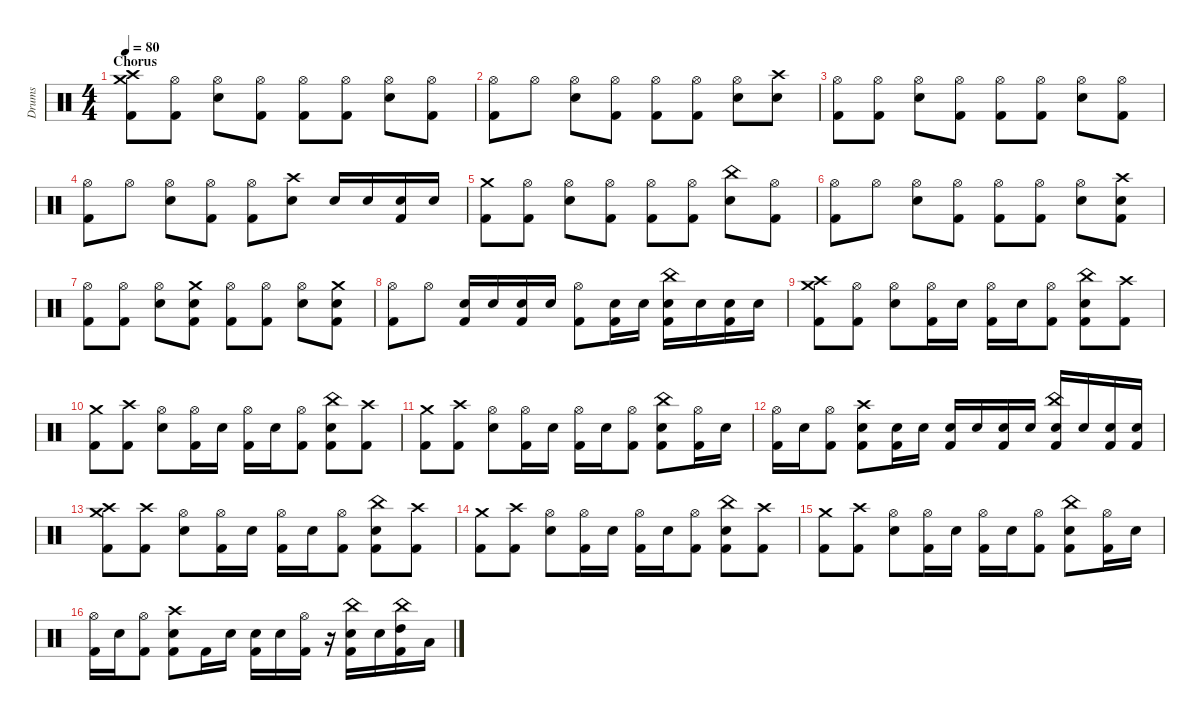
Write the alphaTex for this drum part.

\hideDynamics
\bracketExtendMode nobrackets
\otherSystemsTrackNameOrientation horizontal
\track ("Drumkit" "Drums") {instrument percussion}
\staff {score}
\articulation defaults
\ts (4 4)
\section ("" "Chorus")
\tempo 80
\clef neutral
\ks c
("Kick (hit) 2" "Crash high (hit)" "Crash medium (hit)").8{dy f beam Down} ("Kick (hit) 2" "Hi-Hat (open)").8{beam Down} ("Snare (hit) 2" "Hi-Hat (open)").8{beam Down} ("Kick (hit) 2" "Hi-Hat (open)").8{beam Down} ("Kick (hit) 2" "Hi-Hat (open)").8{beam Down} ("Kick (hit) 2" "Hi-Hat (open)").8{beam Down} ("Snare (hit) 2" "Hi-Hat (open)").8{beam Down} ("Kick (hit) 2" "Hi-Hat (open)").8{beam Down} |
("Kick (hit) 2" "Hi-Hat (open)").8{beam Down} "Hi-Hat (open)".8{beam Down} ("Snare (hit) 2" "Hi-Hat (open)").8{beam Down} ("Kick (hit) 2" "Hi-Hat (open)").8{beam Down} ("Kick (hit) 2" "Hi-Hat (open)").8{beam Down} ("Kick (hit) 2" "Hi-Hat (open)").8{beam Down} ("Snare (hit) 2" "Hi-Hat (open)").8{beam Down} ("Snare (hit) 2" "Crash high (hit)").8{beam Down} |
("Kick (hit) 2" "Hi-Hat (open)").8{beam Down} ("Kick (hit) 2" "Hi-Hat (open)").8{beam Down} ("Snare (hit) 2" "Hi-Hat (open)").8{beam Down} ("Kick (hit) 2" "Hi-Hat (open)").8{beam Down} ("Kick (hit) 2" "Hi-Hat (open)").8{beam Down} ("Kick (hit) 2" "Hi-Hat (open)").8{beam Down} ("Snare (hit) 2" "Hi-Hat (open)").8{beam Down} ("Kick (hit) 2" "Hi-Hat (open)").8{beam Down} |
("Kick (hit) 2" "Hi-Hat (open)").8{beam Down} "Hi-Hat (open)".8{beam Down} ("Snare (hit) 2" "Hi-Hat (open)").8{beam Down} ("Kick (hit) 2" "Hi-Hat (open)").8{beam Down} ("Kick (hit) 2" "Hi-Hat (open)").8{beam Down} ("Snare (hit) 2" "Crash high (hit)").8{beam Down} "Snare (hit) 2".16{beam Up} "Snare (hit) 2".16{beam Up} ("Kick (hit) 2" "Snare (hit) 2").16{beam Up} "Snare (hit) 2".16{beam Up} |
("Kick (hit) 2" "Crash medium (hit)").8{beam Down} ("Kick (hit) 2" "Hi-Hat (open)").8{beam Down} ("Snare (hit) 2" "Hi-Hat (open)").8{beam Down} ("Kick (hit) 2" "Hi-Hat (open)").8{beam Down} ("Kick (hit) 2" "Hi-Hat (open)").8{beam Down} ("Kick (hit) 2" "Hi-Hat (open)").8{beam Down} ("Snare (hit) 2" "China (hit)").8{beam Down} ("Kick (hit) 2" "Hi-Hat (open)").8{beam Down} |
("Kick (hit) 2" "Hi-Hat (open)").8{beam Down} "Hi-Hat (open)".8{beam Down} ("Snare (hit) 2" "Hi-Hat (open)").8{beam Down} ("Kick (hit) 2" "Hi-Hat (open)").8{beam Down} ("Kick (hit) 2" "Hi-Hat (open)").8{beam Down} ("Kick (hit) 2" "Hi-Hat (open)").8{beam Down} ("Snare (hit) 2" "Hi-Hat (open)").8{beam Down} ("Snare (hit) 2" "Crash high (hit)" "Kick (hit) 2").8{beam Down} |
("Kick (hit) 2" "Hi-Hat (open)").8{beam Down} ("Kick (hit) 2" "Hi-Hat (open)").8{beam Down} ("Snare (hit) 2" "Hi-Hat (open)").8{beam Down} ("Snare (hit) 2" "Crash medium (hit)" "Kick (hit) 2").8{beam Down} ("Kick (hit) 2" "Hi-Hat (open)").8{beam Down} ("Kick (hit) 2" "Hi-Hat (open)").8{beam Down} ("Snare (hit) 2" "Hi-Hat (open)").8{beam Down} ("Kick (hit) 2" "Crash medium (hit)" "Snare (hit) 2").8{beam Down} |
("Kick (hit) 2" "Hi-Hat (open)").8{beam Down} "Hi-Hat (open)".8{beam Down} ("Snare (hit) 2" "Kick (hit) 2").16{beam Up} "Snare (hit) 2".16{beam Up} ("Snare (hit) 2" "Kick (hit) 2").16{beam Up} "Snare (hit) 2".16{beam Up} ("Kick (hit) 2" "Hi-Hat (open)").8{beam Down} ("Snare (hit) 2" "Kick (hit) 2").16{beam Down} "Snare (hit) 2".16{beam Down} ("China (hit)" "Snare (hit) 2" "Kick (hit) 2").16{beam Down} "Snare (hit) 2".16{beam Down} ("Snare (hit) 2" "Kick (hit) 2").16{beam Down} "Snare (hit) 2".16{beam Down} |
("Kick (hit) 2" "Crash high (hit)" "Crash medium (hit)").8{beam Down} ("Kick (hit) 2" "Hi-Hat (open)").8{beam Down} ("Snare (hit) 2" "Hi-Hat (open)").8{beam Down} ("Kick (hit) 2" "Hi-Hat (open)").16{beam Down} "Snare (hit) 2".16{beam Down} ("Kick (hit) 2" "Hi-Hat (open)").16{beam Down} "Snare (hit) 2".16{beam Down} ("Kick (hit) 2" "Hi-Hat (open)").8{beam Down} ("Snare (hit) 2" "China (hit)" "Kick (hit) 2").8{beam Down} ("Kick (hit) 2" "Crash high (hit)").8{beam Down} |
("Kick (hit) 2" "Crash medium (hit)").8{beam Down} ("Kick (hit) 2" "Crash high (hit)").8{beam Down} ("Snare (hit) 2" "Hi-Hat (open)").8{beam Down} ("Kick (hit) 2" "Hi-Hat (open)").16{beam Down} "Snare (hit) 2".16{beam Down} ("Kick (hit) 2" "Hi-Hat (open)").16{beam Down} "Snare (hit) 2".16{beam Down} ("Kick (hit) 2" "Hi-Hat (open)").8{beam Down} ("Snare (hit) 2" "China (hit)" "Kick (hit) 2").8{beam Down} ("Kick (hit) 2" "Crash high (hit)").8{beam Down} |
("Kick (hit) 2" "Crash medium (hit)").8{beam Down} ("Kick (hit) 2" "Crash high (hit)").8{beam Down} ("Snare (hit) 2" "Hi-Hat (open)").8{beam Down} ("Kick (hit) 2" "Hi-Hat (open)").16{beam Down} "Snare (hit) 2".16{beam Down} ("Kick (hit) 2" "Hi-Hat (open)").16{beam Down} "Snare (hit) 2".16{beam Down} ("Kick (hit) 2" "Hi-Hat (open)").8{beam Down} ("Snare (hit) 2" "China (hit)" "Kick (hit) 2").8{beam Down} ("Kick (hit) 2" "Hi-Hat (open)").16{beam Down} "Snare (hit) 2".16{beam Down} |
("Kick (hit) 2" "Hi-Hat (open)").16{beam Down} "Snare (hit) 2".16{beam Down} ("Kick (hit) 2" "Hi-Hat (open)").8{beam Down} ("Snare (hit) 2" "Crash high (hit)" "Kick (hit) 2").8{beam Down} ("Kick (hit) 2" "Snare (hit) 2").16{beam Down} "Snare (hit) 2".16{beam Down} ("Snare (hit) 2" "Kick (hit) 2").16{beam Up} "Snare (hit) 2".16{beam Up} ("Snare (hit) 2" "Kick (hit) 2").16{beam Up} "Snare (hit) 2".16{beam Up} ("Snare (hit) 2" "Kick (hit) 2" "China (hit)").16{beam Up} "Snare (hit) 2".16{beam Up} ("Snare (hit) 2" "Kick (hit) 2").16{beam Up} ("Kick (hit) 2" "Snare (hit) 2").16{beam Up} |
("Kick (hit) 2" "Crash high (hit)" "Crash medium (hit)").8{beam Down} ("Kick (hit) 2" "Crash high (hit)").8{beam Down} ("Snare (hit) 2" "Hi-Hat (open)").8{beam Down} ("Kick (hit) 2" "Hi-Hat (open)").16{beam Down} "Snare (hit) 2".16{beam Down} ("Kick (hit) 2" "Hi-Hat (open)").16{beam Down} "Snare (hit) 2".16{beam Down} ("Kick (hit) 2" "Hi-Hat (open)").8{beam Down} ("Snare (hit) 2" "China (hit)" "Kick (hit) 2").8{beam Down} ("Kick (hit) 2" "Crash high (hit)").8{beam Down} |
("Kick (hit) 2" "Crash medium (hit)").8{beam Down} ("Kick (hit) 2" "Crash high (hit)").8{beam Down} ("Snare (hit) 2" "Hi-Hat (open)").8{beam Down} ("Kick (hit) 2" "Hi-Hat (open)").16{beam Down} "Snare (hit) 2".16{beam Down} ("Kick (hit) 2" "Hi-Hat (open)").16{beam Down} "Snare (hit) 2".16{beam Down} ("Kick (hit) 2" "Hi-Hat (open)").8{beam Down} ("Snare (hit) 2" "China (hit)" "Kick (hit) 2").8{beam Down} ("Kick (hit) 2" "Crash high (hit)").8{beam Down} |
("Kick (hit) 2" "Crash medium (hit)").8{beam Down} ("Kick (hit) 2" "Crash high (hit)").8{beam Down} ("Snare (hit) 2" "Hi-Hat (open)").8{beam Down} ("Kick (hit) 2" "Hi-Hat (open)").16{beam Down} "Snare (hit) 2".16{beam Down} ("Kick (hit) 2" "Hi-Hat (open)").16{beam Down} "Snare (hit) 2".16{beam Down} ("Kick (hit) 2" "Hi-Hat (open)").8{beam Down} ("Snare (hit) 2" "China (hit)" "Kick (hit) 2").8{beam Down} ("Kick (hit) 2" "Hi-Hat (open)").16{beam Down} "Snare (hit) 2".16{beam Down} |
("Kick (hit) 2" "Hi-Hat (open)").16{beam Down} "Snare (hit) 2".16{beam Down} ("Kick (hit) 2" "Hi-Hat (open)").8{beam Down} ("Snare (hit) 2" "Crash high (hit)" "Kick (hit) 2").8{beam Down} "Kick (hit) 2".16{beam Down} "Snare (hit) 2".16{beam Down} ("Snare (hit) 2" "Kick (hit) 2").16{beam Down} "Snare (hit) 2".16{beam Down} ("Hi-Hat (open)" "Kick (hit) 2").16{beam Down} r.16{beam Down} ("Snare (hit) 2" "Kick (hit) 2" "China (hit)").16{beam Down} "Snare (hit) 2".16{beam Down} ("High Tom (hit)" "Kick (hit) 2" "China (hit)").16{beam Down} "Low Tom (hit)".16{beam Down}
